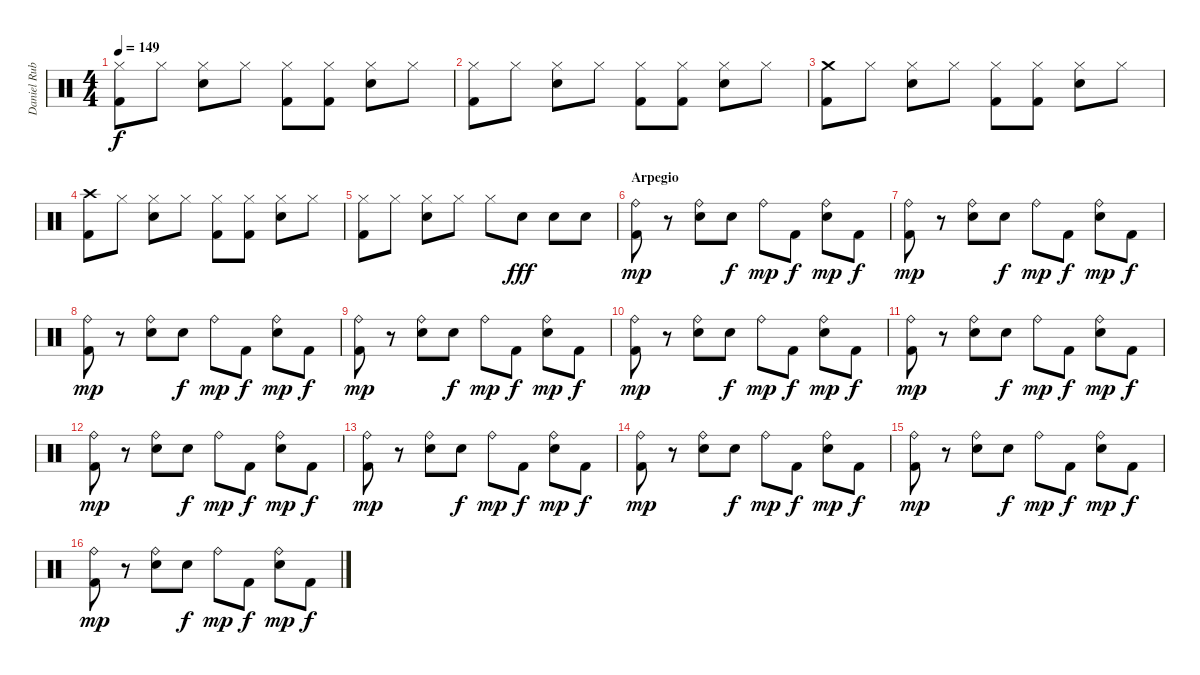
\track ("Daniel Rubiano" "Daniel Rub") {instrument percussion}
\staff {score}
\articulation defaults
\ts (4 4)
\tempo 149
\clef neutral
\ks c
("Hi-Hat (closed)" "Kick (hit) 2").8{dy f} "Hi-Hat (closed)".8 ("Hi-Hat (closed)" "Snare (hit) 2").8 "Hi-Hat (closed)".8 ("Hi-Hat (closed)" "Kick (hit) 2").8 ("Hi-Hat (closed)" "Kick (hit) 2").8 ("Hi-Hat (closed)" "Snare (hit) 2").8 "Hi-Hat (closed)".8 |
("Hi-Hat (closed)" "Kick (hit) 2").8 "Hi-Hat (closed)".8 ("Hi-Hat (closed)" "Snare (hit) 2").8 "Hi-Hat (closed)".8 ("Hi-Hat (closed)" "Kick (hit) 2").8 ("Hi-Hat (closed)" "Kick (hit) 2").8 ("Hi-Hat (closed)" "Snare (hit) 2").8 "Hi-Hat (closed)".8 |
("Crash medium (hit)" "Kick (hit) 2").8 "Hi-Hat (closed)".8 ("Hi-Hat (closed)" "Snare (hit) 2").8 "Hi-Hat (closed)".8 ("Hi-Hat (closed)" "Kick (hit) 2").8 ("Hi-Hat (closed)" "Kick (hit) 2").8 ("Hi-Hat (closed)" "Snare (hit) 2").8 "Hi-Hat (closed)".8 |
("Crash high (hit)" "Kick (hit) 2").8 "Hi-Hat (closed)".8 ("Hi-Hat (closed)" "Snare (hit) 2").8 "Hi-Hat (closed)".8 ("Hi-Hat (closed)" "Kick (hit) 2").8 ("Hi-Hat (closed)" "Kick (hit) 2").8 ("Hi-Hat (closed)" "Snare (hit) 2").8 "Hi-Hat (closed)".8 |
("Hi-Hat (closed)" "Kick (hit) 2").8 "Hi-Hat (closed)".8 ("Hi-Hat (closed)" "Snare (hit) 2").8 "Hi-Hat (closed)".8 "Hi-Hat (closed)".8 "Snare (hit) 2".8{dy fff} "Snare (hit) 2".8 "Snare (hit) 2".8 |
\section ("" "Arpegio")
("Ride (bell)" "Kick (hit) 2").8{dy mp} r.8 ("Ride (bell)" "Snare (hit) 2").8 "Snare (hit) 2".8{dy f} "Ride (bell)".8{dy mp} "Kick (hit) 2".8{dy f} ("Ride (bell)" "Snare (hit) 2").8{dy mp} "Kick (hit) 2".8{dy f} |
("Ride (bell)" "Kick (hit) 2").8{dy mp} r.8 ("Ride (bell)" "Snare (hit) 2").8 "Snare (hit) 2".8{dy f} "Ride (bell)".8{dy mp} "Kick (hit) 2".8{dy f} ("Ride (bell)" "Snare (hit) 2").8{dy mp} "Kick (hit) 2".8{dy f} |
("Ride (bell)" "Kick (hit) 2").8{dy mp} r.8 ("Ride (bell)" "Snare (hit) 2").8 "Snare (hit) 2".8{dy f} "Ride (bell)".8{dy mp} "Kick (hit) 2".8{dy f} ("Ride (bell)" "Snare (hit) 2").8{dy mp} "Kick (hit) 2".8{dy f} |
("Ride (bell)" "Kick (hit) 2").8{dy mp} r.8 ("Ride (bell)" "Snare (hit) 2").8 "Snare (hit) 2".8{dy f} "Ride (bell)".8{dy mp} "Kick (hit) 2".8{dy f} ("Ride (bell)" "Snare (hit) 2").8{dy mp} "Kick (hit) 2".8{dy f} |
("Ride (bell)" "Kick (hit) 2").8{dy mp} r.8 ("Ride (bell)" "Snare (hit) 2").8 "Snare (hit) 2".8{dy f} "Ride (bell)".8{dy mp} "Kick (hit) 2".8{dy f} ("Ride (bell)" "Snare (hit) 2").8{dy mp} "Kick (hit) 2".8{dy f} |
("Ride (bell)" "Kick (hit) 2").8{dy mp} r.8 ("Ride (bell)" "Snare (hit) 2").8 "Snare (hit) 2".8{dy f} "Ride (bell)".8{dy mp} "Kick (hit) 2".8{dy f} ("Ride (bell)" "Snare (hit) 2").8{dy mp} "Kick (hit) 2".8{dy f} |
("Ride (bell)" "Kick (hit) 2").8{dy mp} r.8 ("Ride (bell)" "Snare (hit) 2").8 "Snare (hit) 2".8{dy f} "Ride (bell)".8{dy mp} "Kick (hit) 2".8{dy f} ("Ride (bell)" "Snare (hit) 2").8{dy mp} "Kick (hit) 2".8{dy f} |
("Ride (bell)" "Kick (hit) 2").8{dy mp} r.8 ("Ride (bell)" "Snare (hit) 2").8 "Snare (hit) 2".8{dy f} "Ride (bell)".8{dy mp} "Kick (hit) 2".8{dy f} ("Ride (bell)" "Snare (hit) 2").8{dy mp} "Kick (hit) 2".8{dy f} |
("Ride (bell)" "Kick (hit) 2").8{dy mp} r.8 ("Ride (bell)" "Snare (hit) 2").8 "Snare (hit) 2".8{dy f} "Ride (bell)".8{dy mp} "Kick (hit) 2".8{dy f} ("Ride (bell)" "Snare (hit) 2").8{dy mp} "Kick (hit) 2".8{dy f} |
("Ride (bell)" "Kick (hit) 2").8{dy mp} r.8 ("Ride (bell)" "Snare (hit) 2").8 "Snare (hit) 2".8{dy f} "Ride (bell)".8{dy mp} "Kick (hit) 2".8{dy f} ("Ride (bell)" "Snare (hit) 2").8{dy mp} "Kick (hit) 2".8{dy f} |
("Ride (bell)" "Kick (hit) 2").8{dy mp} r.8 ("Ride (bell)" "Snare (hit) 2").8 "Snare (hit) 2".8{dy f} "Ride (bell)".8{dy mp} "Kick (hit) 2".8{dy f} ("Ride (bell)" "Snare (hit) 2").8{dy mp} "Kick (hit) 2".8{dy f}
